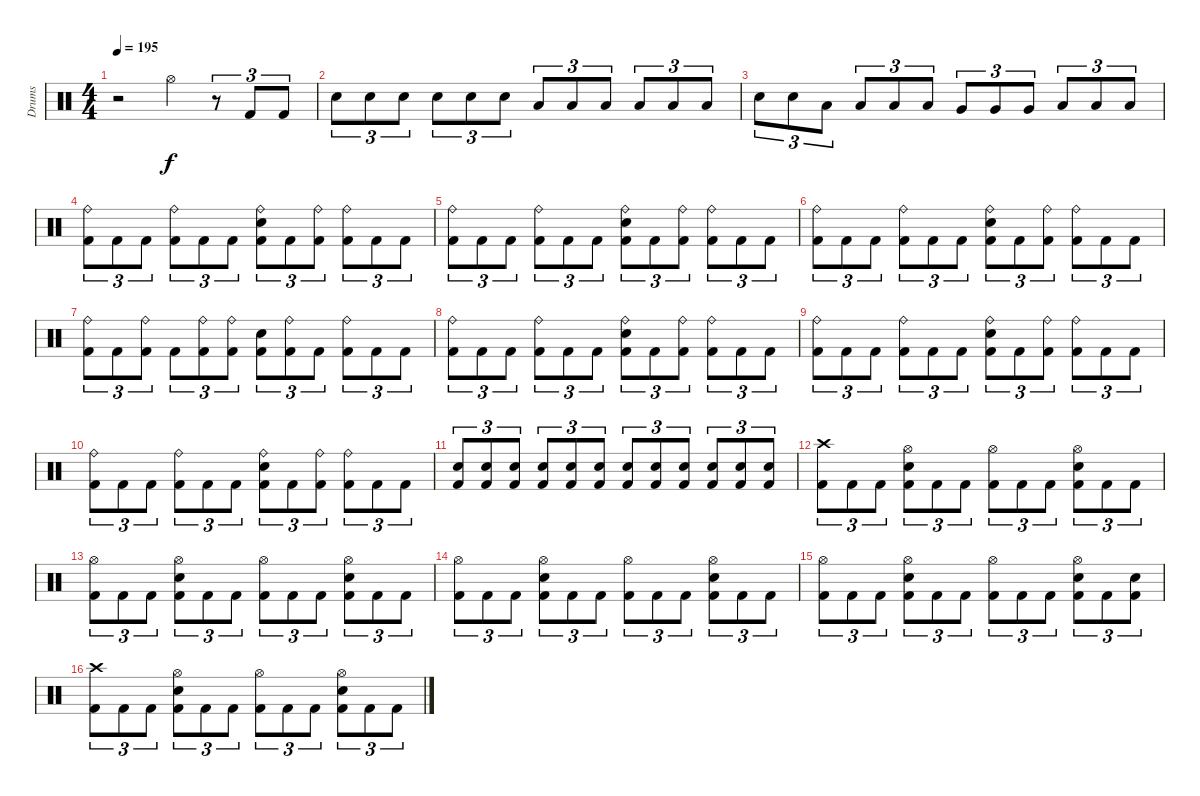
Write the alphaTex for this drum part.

\track ("Drums" "Drums") {instrument percussion}
\staff {score}
\articulation defaults
\ts (4 4)
\tempo 195
\clef neutral
\ks c
r.2{dy f} "Hi-Hat (open)".4 r.8{tu (3 2)} "Kick (hit) 2".8{tu (3 2)} "Kick (hit) 2".8{tu (3 2)} |
"Snare (hit) 2".8{tu (3 2)} "Snare (hit) 2".8{tu (3 2)} "Snare (hit) 2".8{tu (3 2)} "Snare (hit) 2".8{tu (3 2)} "Snare (hit) 2".8{tu (3 2)} "Snare (hit) 2".8{tu (3 2)} "Low Tom (hit)".8{tu (3 2)} "Low Tom (hit)".8{tu (3 2)} "Low Tom (hit)".8{tu (3 2)} "Low Tom (hit)".8{tu (3 2)} "Low Tom (hit)".8{tu (3 2)} "Low Tom (hit)".8{tu (3 2)} |
"Snare (hit) 2".8{tu (3 2)} "Snare (hit) 2".8{tu (3 2)} "Low Tom (hit)".8{tu (3 2)} "Low Tom (hit)".8{tu (3 2)} "Low Tom (hit)".8{tu (3 2)} "Low Tom (hit)".8{tu (3 2)} "Very Low Tom (hit)".8{tu (3 2)} "Very Low Tom (hit)".8{tu (3 2)} "Very Low Tom (hit)".8{tu (3 2)} "Low Floor Tom (hit)".8{tu (3 2)} "Low Floor Tom (hit)".8{tu (3 2)} "Low Floor Tom (hit)".8{tu (3 2)} |
("Ride (bell)" "Kick (hit) 2").8{tu (3 2)} "Kick (hit) 2".8{tu (3 2)} "Kick (hit) 2".8{tu (3 2)} ("Ride (bell)" "Kick (hit) 2").8{tu (3 2)} "Kick (hit) 2".8{tu (3 2)} "Kick (hit) 2".8{tu (3 2)} ("Ride (bell)" "Snare (hit) 2" "Kick (hit) 2").8{tu (3 2)} "Kick (hit) 2".8{tu (3 2)} ("Ride (bell)" "Kick (hit) 2").8{tu (3 2)} ("Ride (bell)" "Kick (hit) 2").8{tu (3 2)} "Kick (hit) 2".8{tu (3 2)} "Kick (hit) 2".8{tu (3 2)} |
("Ride (bell)" "Kick (hit) 2").8{tu (3 2)} "Kick (hit) 2".8{tu (3 2)} "Kick (hit) 2".8{tu (3 2)} ("Ride (bell)" "Kick (hit) 2").8{tu (3 2)} "Kick (hit) 2".8{tu (3 2)} "Kick (hit) 2".8{tu (3 2)} ("Ride (bell)" "Snare (hit) 2" "Kick (hit) 2").8{tu (3 2)} "Kick (hit) 2".8{tu (3 2)} ("Ride (bell)" "Kick (hit) 2").8{tu (3 2)} ("Ride (bell)" "Kick (hit) 2").8{tu (3 2)} "Kick (hit) 2".8{tu (3 2)} "Kick (hit) 2".8{tu (3 2)} |
("Ride (bell)" "Kick (hit) 2").8{tu (3 2)} "Kick (hit) 2".8{tu (3 2)} "Kick (hit) 2".8{tu (3 2)} ("Ride (bell)" "Kick (hit) 2").8{tu (3 2)} "Kick (hit) 2".8{tu (3 2)} "Kick (hit) 2".8{tu (3 2)} ("Ride (bell)" "Snare (hit) 2" "Kick (hit) 2").8{tu (3 2)} "Kick (hit) 2".8{tu (3 2)} ("Ride (bell)" "Kick (hit) 2").8{tu (3 2)} ("Ride (bell)" "Kick (hit) 2").8{tu (3 2)} "Kick (hit) 2".8{tu (3 2)} "Kick (hit) 2".8{tu (3 2)} |
("Ride (bell)" "Kick (hit) 2").8{tu (3 2)} "Kick (hit) 2".8{tu (3 2)} ("Ride (bell)" "Kick (hit) 2").8{tu (3 2)} "Kick (hit) 2".8{tu (3 2)} ("Ride (bell)" "Kick (hit) 2").8{tu (3 2)} ("Ride (bell)" "Kick (hit) 2").8{tu (3 2)} ("Snare (hit) 2" "Kick (hit) 2").8{tu (3 2)} ("Ride (bell)" "Kick (hit) 2").8{tu (3 2)} "Kick (hit) 2".8{tu (3 2)} ("Ride (bell)" "Kick (hit) 2").8{tu (3 2)} "Kick (hit) 2".8{tu (3 2)} "Kick (hit) 2".8{tu (3 2)} |
("Ride (bell)" "Kick (hit) 2").8{tu (3 2)} "Kick (hit) 2".8{tu (3 2)} "Kick (hit) 2".8{tu (3 2)} ("Ride (bell)" "Kick (hit) 2").8{tu (3 2)} "Kick (hit) 2".8{tu (3 2)} "Kick (hit) 2".8{tu (3 2)} ("Ride (bell)" "Snare (hit) 2" "Kick (hit) 2").8{tu (3 2)} "Kick (hit) 2".8{tu (3 2)} ("Ride (bell)" "Kick (hit) 2").8{tu (3 2)} ("Ride (bell)" "Kick (hit) 2").8{tu (3 2)} "Kick (hit) 2".8{tu (3 2)} "Kick (hit) 2".8{tu (3 2)} |
("Ride (bell)" "Kick (hit) 2").8{tu (3 2)} "Kick (hit) 2".8{tu (3 2)} "Kick (hit) 2".8{tu (3 2)} ("Ride (bell)" "Kick (hit) 2").8{tu (3 2)} "Kick (hit) 2".8{tu (3 2)} "Kick (hit) 2".8{tu (3 2)} ("Ride (bell)" "Snare (hit) 2" "Kick (hit) 2").8{tu (3 2)} "Kick (hit) 2".8{tu (3 2)} ("Ride (bell)" "Kick (hit) 2").8{tu (3 2)} ("Ride (bell)" "Kick (hit) 2").8{tu (3 2)} "Kick (hit) 2".8{tu (3 2)} "Kick (hit) 2".8{tu (3 2)} |
("Ride (bell)" "Kick (hit) 2").8{tu (3 2)} "Kick (hit) 2".8{tu (3 2)} "Kick (hit) 2".8{tu (3 2)} ("Ride (bell)" "Kick (hit) 2").8{tu (3 2)} "Kick (hit) 2".8{tu (3 2)} "Kick (hit) 2".8{tu (3 2)} ("Ride (bell)" "Snare (hit) 2" "Kick (hit) 2").8{tu (3 2)} "Kick (hit) 2".8{tu (3 2)} ("Ride (bell)" "Kick (hit) 2").8{tu (3 2)} ("Ride (bell)" "Kick (hit) 2").8{tu (3 2)} "Kick (hit) 2".8{tu (3 2)} "Kick (hit) 2".8{tu (3 2)} |
("Snare (hit) 2" "Kick (hit) 2").8{tu (3 2) volume 9} ("Snare (hit) 2" "Kick (hit) 2").8{tu (3 2) volume 13} ("Snare (hit) 2" "Kick (hit) 2").8{tu (3 2)} ("Snare (hit) 2" "Kick (hit) 2").8{tu (3 2)} ("Snare (hit) 2" "Kick (hit) 2").8{tu (3 2)} ("Snare (hit) 2" "Kick (hit) 2").8{tu (3 2)} ("Snare (hit) 2" "Kick (hit) 2").8{tu (3 2)} ("Snare (hit) 2" "Kick (hit) 2").8{tu (3 2)} ("Snare (hit) 2" "Kick (hit) 2").8{tu (3 2)} ("Snare (hit) 2" "Kick (hit) 2").8{tu (3 2)} ("Snare (hit) 2" "Kick (hit) 2").8{tu (3 2)} ("Snare (hit) 2" "Kick (hit) 2").8{tu (3 2)} |
("Crash high (hit)" "Kick (hit) 2").8{tu (3 2)} "Kick (hit) 2".8{tu (3 2)} "Kick (hit) 2".8{tu (3 2)} ("Hi-Hat (open)" "Snare (hit) 2" "Kick (hit) 2").8{tu (3 2)} "Kick (hit) 2".8{tu (3 2)} "Kick (hit) 2".8{tu (3 2)} ("Hi-Hat (open)" "Kick (hit) 2").8{tu (3 2)} "Kick (hit) 2".8{tu (3 2)} "Kick (hit) 2".8{tu (3 2)} ("Hi-Hat (open)" "Snare (hit) 2" "Kick (hit) 2").8{tu (3 2)} "Kick (hit) 2".8{tu (3 2)} "Kick (hit) 2".8{tu (3 2)} |
("Hi-Hat (open)" "Kick (hit) 2").8{tu (3 2)} "Kick (hit) 2".8{tu (3 2)} "Kick (hit) 2".8{tu (3 2)} ("Hi-Hat (open)" "Snare (hit) 2" "Kick (hit) 2").8{tu (3 2)} "Kick (hit) 2".8{tu (3 2)} "Kick (hit) 2".8{tu (3 2)} ("Hi-Hat (open)" "Kick (hit) 2").8{tu (3 2)} "Kick (hit) 2".8{tu (3 2)} "Kick (hit) 2".8{tu (3 2)} ("Hi-Hat (open)" "Snare (hit) 2" "Kick (hit) 2").8{tu (3 2)} "Kick (hit) 2".8{tu (3 2)} "Kick (hit) 2".8{tu (3 2)} |
("Hi-Hat (open)" "Kick (hit) 2").8{tu (3 2)} "Kick (hit) 2".8{tu (3 2)} "Kick (hit) 2".8{tu (3 2)} ("Hi-Hat (open)" "Snare (hit) 2" "Kick (hit) 2").8{tu (3 2)} "Kick (hit) 2".8{tu (3 2)} "Kick (hit) 2".8{tu (3 2)} ("Hi-Hat (open)" "Kick (hit) 2").8{tu (3 2)} "Kick (hit) 2".8{tu (3 2)} "Kick (hit) 2".8{tu (3 2)} ("Hi-Hat (open)" "Snare (hit) 2" "Kick (hit) 2").8{tu (3 2)} "Kick (hit) 2".8{tu (3 2)} "Kick (hit) 2".8{tu (3 2)} |
("Hi-Hat (open)" "Kick (hit) 2").8{tu (3 2)} "Kick (hit) 2".8{tu (3 2)} "Kick (hit) 2".8{tu (3 2)} ("Hi-Hat (open)" "Snare (hit) 2" "Kick (hit) 2").8{tu (3 2)} "Kick (hit) 2".8{tu (3 2)} "Kick (hit) 2".8{tu (3 2)} ("Hi-Hat (open)" "Kick (hit) 2").8{tu (3 2)} "Kick (hit) 2".8{tu (3 2)} "Kick (hit) 2".8{tu (3 2)} ("Hi-Hat (open)" "Snare (hit) 2" "Kick (hit) 2").8{tu (3 2)} "Kick (hit) 2".8{tu (3 2)} ("Snare (hit) 2" "Kick (hit) 2").8{tu (3 2)} |
("Crash high (hit)" "Kick (hit) 2").8{tu (3 2)} "Kick (hit) 2".8{tu (3 2)} "Kick (hit) 2".8{tu (3 2)} ("Hi-Hat (open)" "Snare (hit) 2" "Kick (hit) 2").8{tu (3 2)} "Kick (hit) 2".8{tu (3 2)} "Kick (hit) 2".8{tu (3 2)} ("Hi-Hat (open)" "Kick (hit) 2").8{tu (3 2)} "Kick (hit) 2".8{tu (3 2)} "Kick (hit) 2".8{tu (3 2)} ("Hi-Hat (open)" "Snare (hit) 2" "Kick (hit) 2").8{tu (3 2)} "Kick (hit) 2".8{tu (3 2)} "Kick (hit) 2".8{tu (3 2)}
